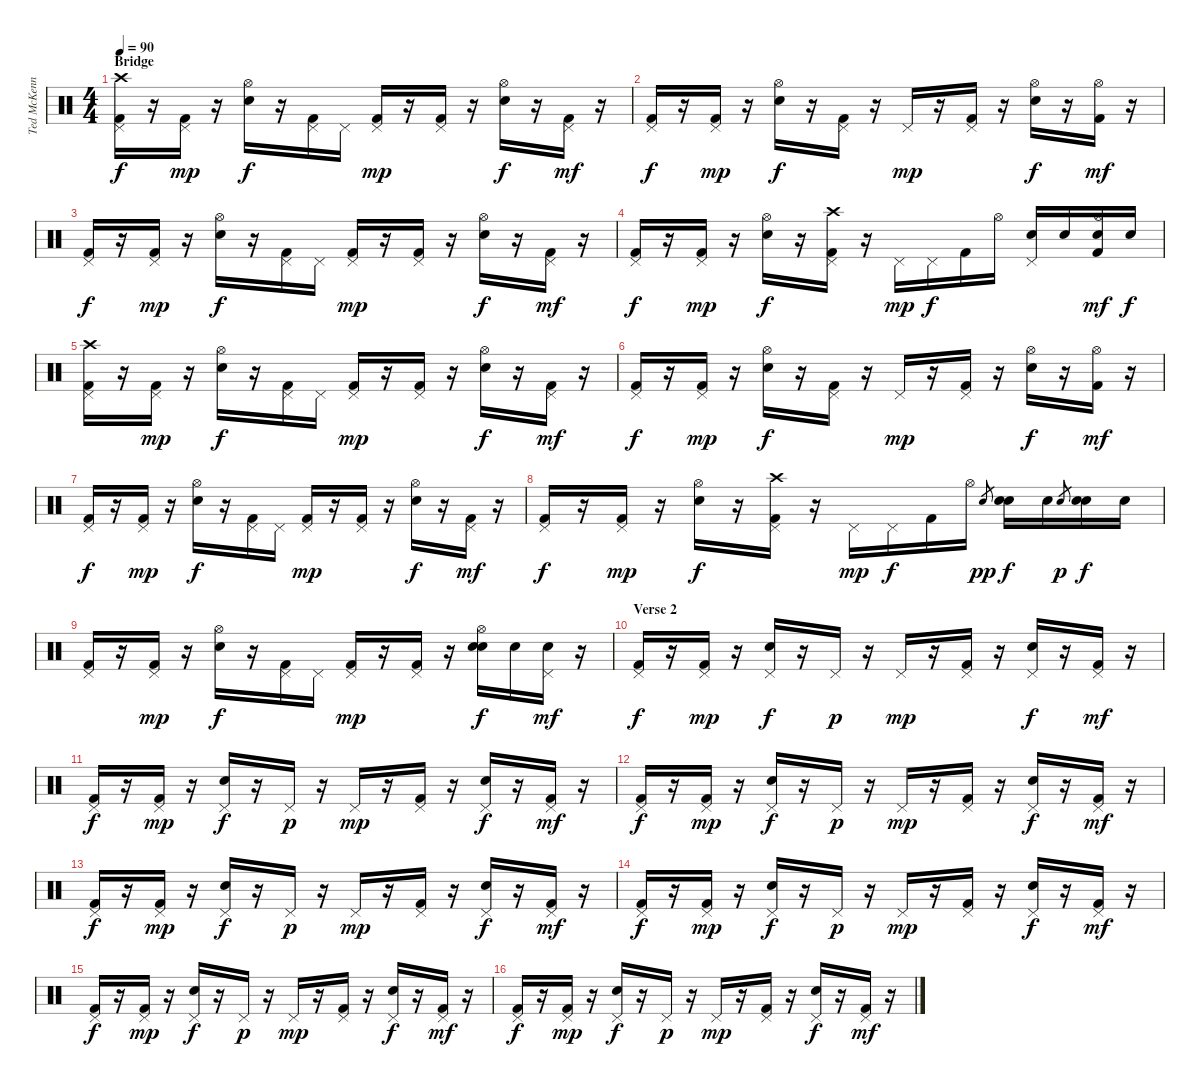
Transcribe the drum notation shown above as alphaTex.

\track ("Ted McKenna" "Ted McKenn") {instrument percussion}
\staff {score}
\articulation defaults
\ts (4 4)
\section ("" "Bridge")
\tempo 90
\clef neutral
\ks c
("Crash high (hit)" "Pedal Hi-Hat (hit)" "Kick (hit) 2").16{dy f} r.16 ("Pedal Hi-Hat (hit)" "Kick (hit) 2").16{dy mp} r.16 ("Hi-Hat (open)" "Snare (hit) 2").16{dy f} r.16 ("Pedal Hi-Hat (hit)" "Kick (hit) 2").16 "Pedal Hi-Hat (hit)".16 ("Pedal Hi-Hat (hit)" "Kick (hit) 2").16{dy mp} r.16 ("Pedal Hi-Hat (hit)" "Kick (hit) 2").16 r.16 ("Hi-Hat (open)" "Snare (hit) 2").16{dy f} r.16 ("Pedal Hi-Hat (hit)" "Kick (hit) 2").16{dy mf} r.16 |
("Pedal Hi-Hat (hit)" "Kick (hit) 2").16{dy f} r.16 ("Pedal Hi-Hat (hit)" "Kick (hit) 2").16{dy mp} r.16 ("Hi-Hat (open)" "Snare (hit) 2").16{dy f} r.16 ("Pedal Hi-Hat (hit)" "Kick (hit) 2").16 r.16 "Pedal Hi-Hat (hit)".16{dy mp} r.16 ("Pedal Hi-Hat (hit)" "Kick (hit) 2").16 r.16 ("Hi-Hat (open)" "Snare (hit) 2").16{dy f} r.16 ("Hi-Hat (open)" "Kick (hit) 2").16{dy mf} r.16 |
("Pedal Hi-Hat (hit)" "Kick (hit) 2").16{dy f} r.16 ("Pedal Hi-Hat (hit)" "Kick (hit) 2").16{dy mp} r.16 ("Hi-Hat (open)" "Snare (hit) 2").16{dy f} r.16 ("Pedal Hi-Hat (hit)" "Kick (hit) 2").16 "Pedal Hi-Hat (hit)".16 ("Pedal Hi-Hat (hit)" "Kick (hit) 2").16{dy mp} r.16 ("Pedal Hi-Hat (hit)" "Kick (hit) 2").16 r.16 ("Hi-Hat (open)" "Snare (hit) 2").16{dy f} r.16 ("Pedal Hi-Hat (hit)" "Kick (hit) 2").16{dy mf} r.16 |
("Pedal Hi-Hat (hit)" "Kick (hit) 2").16{dy f} r.16 ("Pedal Hi-Hat (hit)" "Kick (hit) 2").16{dy mp} r.16 ("Hi-Hat (open)" "Snare (hit) 2").16{dy f} r.16 ("Crash high (hit)" "Pedal Hi-Hat (hit)" "Kick (hit) 2").16 r.16 "Pedal Hi-Hat (hit)".16{dy mp} "Pedal Hi-Hat (hit)".16{dy f} "Kick (hit) 2".16 "Hi-Hat (open)".16 ("Pedal Hi-Hat (hit)" "Snare (hit) 2").16 "Snare (hit) 2".16 ("Hi-Hat (open)" "Snare (hit) 2" "Kick (hit) 2").16{dy mf} "Snare (hit) 2".16{dy f} |
("Crash high (hit)" "Pedal Hi-Hat (hit)" "Kick (hit) 2").16 r.16 ("Pedal Hi-Hat (hit)" "Kick (hit) 2").16{dy mp} r.16 ("Hi-Hat (open)" "Snare (hit) 2").16{dy f} r.16 ("Pedal Hi-Hat (hit)" "Kick (hit) 2").16 "Pedal Hi-Hat (hit)".16 ("Pedal Hi-Hat (hit)" "Kick (hit) 2").16{dy mp} r.16 ("Pedal Hi-Hat (hit)" "Kick (hit) 2").16 r.16 ("Hi-Hat (open)" "Snare (hit) 2").16{dy f} r.16 ("Pedal Hi-Hat (hit)" "Kick (hit) 2").16{dy mf} r.16 |
("Pedal Hi-Hat (hit)" "Kick (hit) 2").16{dy f} r.16 ("Pedal Hi-Hat (hit)" "Kick (hit) 2").16{dy mp} r.16 ("Hi-Hat (open)" "Snare (hit) 2").16{dy f} r.16 ("Pedal Hi-Hat (hit)" "Kick (hit) 2").16 r.16 "Pedal Hi-Hat (hit)".16{dy mp} r.16 ("Pedal Hi-Hat (hit)" "Kick (hit) 2").16 r.16 ("Hi-Hat (open)" "Snare (hit) 2").16{dy f} r.16 ("Hi-Hat (open)" "Kick (hit) 2").16{dy mf} r.16 |
("Pedal Hi-Hat (hit)" "Kick (hit) 2").16{dy f} r.16 ("Pedal Hi-Hat (hit)" "Kick (hit) 2").16{dy mp} r.16 ("Hi-Hat (open)" "Snare (hit) 2").16{dy f} r.16 ("Pedal Hi-Hat (hit)" "Kick (hit) 2").16 "Pedal Hi-Hat (hit)".16 ("Pedal Hi-Hat (hit)" "Kick (hit) 2").16{dy mp} r.16 ("Pedal Hi-Hat (hit)" "Kick (hit) 2").16 r.16 ("Hi-Hat (open)" "Snare (hit) 2").16{dy f} r.16 ("Pedal Hi-Hat (hit)" "Kick (hit) 2").16{dy mf} r.16 |
("Pedal Hi-Hat (hit)" "Kick (hit) 2").16{dy f} r.16 ("Pedal Hi-Hat (hit)" "Kick (hit) 2").16{dy mp} r.16 ("Hi-Hat (open)" "Snare (hit) 2").16{dy f} r.16 ("Crash high (hit)" "Pedal Hi-Hat (hit)" "Kick (hit) 2").16 r.16 "Pedal Hi-Hat (hit)".16{dy mp} "Pedal Hi-Hat (hit)".16{dy f} "Kick (hit) 2".16 "Hi-Hat (open)".16 "Snare (hit) 2".8{gr dy pp} ("Snare (hit) 2" "Snare (hit) 2").16{dy f} "Snare (hit) 2".16 "Electric Snare (hit)".8{gr dy p} ("Electric Snare (hit)" "Snare (hit) 2").16{dy f} "Snare (hit) 2".16 |
("Pedal Hi-Hat (hit)" "Kick (hit) 2").16 r.16 ("Pedal Hi-Hat (hit)" "Kick (hit) 2").16{dy mp} r.16 ("Hi-Hat (open)" "Snare (hit) 2").16{dy f} r.16 ("Pedal Hi-Hat (hit)" "Kick (hit) 2").16 "Pedal Hi-Hat (hit)".16 ("Pedal Hi-Hat (hit)" "Kick (hit) 2").16{dy mp} r.16 ("Pedal Hi-Hat (hit)" "Kick (hit) 2").16 r.16 ("Hi-Hat (open)" "Snare (hit) 2" "Electric Snare (hit)").16{dy f} "Electric Snare (hit)".16 ("Pedal Hi-Hat (hit)" "Electric Snare (hit)").16{dy mf} r.16 |
\section ("" "Verse 2")
("Pedal Hi-Hat (hit)" "Kick (hit) 2").16{dy f} r.16 ("Pedal Hi-Hat (hit)" "Kick (hit) 2").16{dy mp} r.16 ("Pedal Hi-Hat (hit)" "Snare (hit) 2").16{dy f} r.16 "Pedal Hi-Hat (hit)".16{dy p} r.16 "Pedal Hi-Hat (hit)".16{dy mp} r.16 ("Pedal Hi-Hat (hit)" "Kick (hit) 2").16 r.16 ("Pedal Hi-Hat (hit)" "Snare (hit) 2").16{dy f} r.16 ("Pedal Hi-Hat (hit)" "Kick (hit) 2").16{dy mf} r.16 |
("Pedal Hi-Hat (hit)" "Kick (hit) 2").16{dy f} r.16 ("Pedal Hi-Hat (hit)" "Kick (hit) 2").16{dy mp} r.16 ("Pedal Hi-Hat (hit)" "Snare (hit) 2").16{dy f} r.16 "Pedal Hi-Hat (hit)".16{dy p} r.16 "Pedal Hi-Hat (hit)".16{dy mp} r.16 ("Pedal Hi-Hat (hit)" "Kick (hit) 2").16 r.16 ("Pedal Hi-Hat (hit)" "Snare (hit) 2").16{dy f} r.16 ("Pedal Hi-Hat (hit)" "Kick (hit) 2").16{dy mf} r.16 |
("Pedal Hi-Hat (hit)" "Kick (hit) 2").16{dy f} r.16 ("Pedal Hi-Hat (hit)" "Kick (hit) 2").16{dy mp} r.16 ("Pedal Hi-Hat (hit)" "Snare (hit) 2").16{dy f} r.16 "Pedal Hi-Hat (hit)".16{dy p} r.16 "Pedal Hi-Hat (hit)".16{dy mp} r.16 ("Pedal Hi-Hat (hit)" "Kick (hit) 2").16 r.16 ("Pedal Hi-Hat (hit)" "Snare (hit) 2").16{dy f} r.16 ("Pedal Hi-Hat (hit)" "Kick (hit) 2").16{dy mf} r.16 |
("Pedal Hi-Hat (hit)" "Kick (hit) 2").16{dy f} r.16 ("Pedal Hi-Hat (hit)" "Kick (hit) 2").16{dy mp} r.16 ("Pedal Hi-Hat (hit)" "Snare (hit) 2").16{dy f} r.16 "Pedal Hi-Hat (hit)".16{dy p} r.16 "Pedal Hi-Hat (hit)".16{dy mp} r.16 ("Pedal Hi-Hat (hit)" "Kick (hit) 2").16 r.16 ("Pedal Hi-Hat (hit)" "Snare (hit) 2").16{dy f} r.16 ("Pedal Hi-Hat (hit)" "Kick (hit) 2").16{dy mf} r.16 |
("Pedal Hi-Hat (hit)" "Kick (hit) 2").16{dy f} r.16 ("Pedal Hi-Hat (hit)" "Kick (hit) 2").16{dy mp} r.16 ("Pedal Hi-Hat (hit)" "Snare (hit) 2").16{dy f} r.16 "Pedal Hi-Hat (hit)".16{dy p} r.16 "Pedal Hi-Hat (hit)".16{dy mp} r.16 ("Pedal Hi-Hat (hit)" "Kick (hit) 2").16 r.16 ("Pedal Hi-Hat (hit)" "Snare (hit) 2").16{dy f} r.16 ("Pedal Hi-Hat (hit)" "Kick (hit) 2").16{dy mf} r.16 |
("Pedal Hi-Hat (hit)" "Kick (hit) 2").16{dy f} r.16 ("Pedal Hi-Hat (hit)" "Kick (hit) 2").16{dy mp} r.16 ("Pedal Hi-Hat (hit)" "Snare (hit) 2").16{dy f} r.16 "Pedal Hi-Hat (hit)".16{dy p} r.16 "Pedal Hi-Hat (hit)".16{dy mp} r.16 ("Pedal Hi-Hat (hit)" "Kick (hit) 2").16 r.16 ("Pedal Hi-Hat (hit)" "Snare (hit) 2").16{dy f} r.16 ("Pedal Hi-Hat (hit)" "Kick (hit) 2").16{dy mf} r.16 |
("Pedal Hi-Hat (hit)" "Kick (hit) 2").16{dy f} r.16 ("Pedal Hi-Hat (hit)" "Kick (hit) 2").16{dy mp} r.16 ("Pedal Hi-Hat (hit)" "Snare (hit) 2").16{dy f} r.16 "Pedal Hi-Hat (hit)".16{dy p} r.16 "Pedal Hi-Hat (hit)".16{dy mp} r.16 ("Pedal Hi-Hat (hit)" "Kick (hit) 2").16 r.16 ("Pedal Hi-Hat (hit)" "Snare (hit) 2").16{dy f} r.16 ("Pedal Hi-Hat (hit)" "Kick (hit) 2").16{dy mf} r.16
